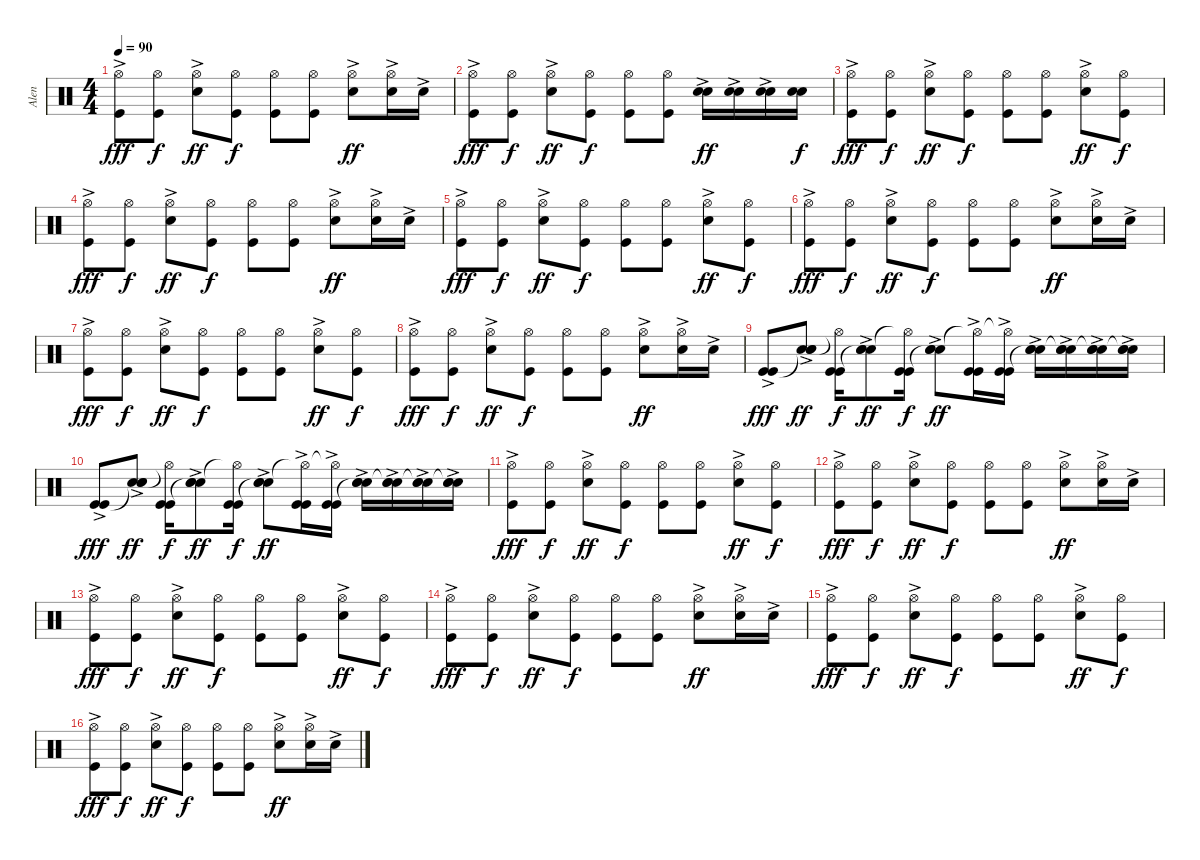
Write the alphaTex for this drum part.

\track ("Alen" "Alen") {instrument percussion}
\staff {score}
\articulation defaults
\ts (4 4)
\tempo 90
\clef neutral
\ks c
("Kick (hit)"{ac} "Hi-Hat (open)").8{dy fff} ("Kick (hit)" "Hi-Hat (open)").8{dy f} ("Snare (hit) 2"{ac} "Hi-Hat (open)").8{dy ff} ("Kick (hit)" "Hi-Hat (open)").8{dy f} ("Kick (hit)" "Hi-Hat (open)").8 ("Kick (hit)" "Hi-Hat (open)").8 ("Snare (hit) 2"{ac} "Hi-Hat (open)").8{dy ff} ("Snare (hit) 2"{ac} "Hi-Hat (open)").16 "Snare (hit) 2"{ac}.16 |
("Kick (hit)"{ac} "Hi-Hat (open)").8{dy fff} ("Kick (hit)" "Hi-Hat (open)").8{dy f} ("Snare (hit) 2"{ac} "Hi-Hat (open)").8{dy ff} ("Kick (hit)" "Hi-Hat (open)").8{dy f} ("Kick (hit)" "Hi-Hat (open)").8 ("Kick (hit)" "Hi-Hat (open)").8 ("Snare (hit) 2"{ac} "Snare (hit) 2").16{dy ff} ("Snare (hit) 2"{ac} "Snare (hit) 2").16 ("Snare (hit) 2"{ac} "Snare (hit) 2").16 ("Snare (hit) 2" "Snare (hit) 2").16{dy f} |
("Kick (hit)"{ac} "Hi-Hat (open)").8{dy fff} ("Kick (hit)" "Hi-Hat (open)").8{dy f} ("Snare (hit) 2"{ac} "Hi-Hat (open)").8{dy ff} ("Kick (hit)" "Hi-Hat (open)").8{dy f} ("Kick (hit)" "Hi-Hat (open)").8 ("Kick (hit)" "Hi-Hat (open)").8 ("Snare (hit) 2"{ac} "Hi-Hat (open)").8{dy ff} ("Kick (hit)" "Hi-Hat (open)").8{dy f} |
("Kick (hit)"{ac} "Hi-Hat (open)").8{dy fff} ("Kick (hit)" "Hi-Hat (open)").8{dy f} ("Snare (hit) 2"{ac} "Hi-Hat (open)").8{dy ff} ("Kick (hit)" "Hi-Hat (open)").8{dy f} ("Kick (hit)" "Hi-Hat (open)").8 ("Kick (hit)" "Hi-Hat (open)").8 ("Snare (hit) 2"{ac} "Hi-Hat (open)").8{dy ff} ("Snare (hit) 2"{ac} "Hi-Hat (open)").16 "Snare (hit) 2"{ac}.16 |
("Kick (hit)"{ac} "Hi-Hat (open)").8{dy fff} ("Kick (hit)" "Hi-Hat (open)").8{dy f} ("Snare (hit) 2"{ac} "Hi-Hat (open)").8{dy ff} ("Kick (hit)" "Hi-Hat (open)").8{dy f} ("Kick (hit)" "Hi-Hat (open)").8 ("Kick (hit)" "Hi-Hat (open)").8 ("Snare (hit) 2"{ac} "Hi-Hat (open)").8{dy ff} ("Kick (hit)" "Hi-Hat (open)").8{dy f} |
("Kick (hit)"{ac} "Hi-Hat (open)").8{dy fff} ("Kick (hit)" "Hi-Hat (open)").8{dy f} ("Snare (hit) 2"{ac} "Hi-Hat (open)").8{dy ff} ("Kick (hit)" "Hi-Hat (open)").8{dy f} ("Kick (hit)" "Hi-Hat (open)").8 ("Kick (hit)" "Hi-Hat (open)").8 ("Snare (hit) 2"{ac} "Hi-Hat (open)").8{dy ff} ("Snare (hit) 2"{ac} "Hi-Hat (open)").16 "Snare (hit) 2"{ac}.16 |
("Kick (hit)"{ac} "Hi-Hat (open)").8{dy fff} ("Kick (hit)" "Hi-Hat (open)").8{dy f} ("Snare (hit) 2"{ac} "Hi-Hat (open)").8{dy ff} ("Kick (hit)" "Hi-Hat (open)").8{dy f} ("Kick (hit)" "Hi-Hat (open)").8 ("Kick (hit)" "Hi-Hat (open)").8 ("Snare (hit) 2"{ac} "Hi-Hat (open)").8{dy ff} ("Kick (hit)" "Hi-Hat (open)").8{dy f} |
("Kick (hit)"{ac} "Hi-Hat (open)").8{dy fff} ("Kick (hit)" "Hi-Hat (open)").8{dy f} ("Snare (hit) 2"{ac} "Hi-Hat (open)").8{dy ff} ("Kick (hit)" "Hi-Hat (open)").8{dy f} ("Kick (hit)" "Hi-Hat (open)").8 ("Kick (hit)" "Hi-Hat (open)").8 ("Snare (hit) 2"{ac} "Hi-Hat (open)").8{dy ff} ("Snare (hit) 2"{ac} "Hi-Hat (open)").16 "Snare (hit) 2"{ac}.16 |
("Kick (hit)"{ac} "Kick (hit)").8{dy fff} ("Electric Snare (hit)"{ac} "Snare (hit)"{t} "Snare (hit) 2").8{dy ff} ("Kick (hit)" "Kick (hit)" "Hi-Hat (open)"{t}).16{dy f} ("Electric Snare (hit)"{ac} "Snare (hit)"{t} "Snare (hit) 2").8{dy ff} ("Kick (hit)" "Kick (hit)" "Hi-Hat (open)"{t}).16{dy f} ("Electric Snare (hit)"{ac} "Snare (hit)"{t} "Snare (hit) 2").8{dy ff} ("Kick (hit)"{ac} "Kick (hit)" "Hi-Hat (open)"{t}).16 ("Kick (hit)"{ac} "Kick (hit)" "Hi-Hat (open)"{t}).16 ("Electric Snare (hit)"{ac} "Snare (hit)"{t} "Snare (hit) 2").16 ("Electric Snare (hit)"{ac} "Snare (hit)"{t} "Snare (hit) 2").16 ("Electric Snare (hit)"{ac} "Snare (hit)"{t} "Snare (hit) 2").16 ("Electric Snare (hit)"{ac} "Snare (hit)"{t} "Snare (hit) 2").16 |
("Kick (hit)"{ac} "Kick (hit)").8{dy fff} ("Electric Snare (hit)"{ac} "Snare (hit)"{t} "Snare (hit) 2").8{dy ff} ("Kick (hit)" "Kick (hit)" "Hi-Hat (open)"{t}).16{dy f} ("Electric Snare (hit)"{ac} "Snare (hit)"{t} "Snare (hit) 2").8{dy ff} ("Kick (hit)" "Kick (hit)" "Hi-Hat (open)"{t}).16{dy f} ("Electric Snare (hit)"{ac} "Snare (hit)"{t} "Snare (hit) 2").8{dy ff} ("Kick (hit)"{ac} "Kick (hit)" "Hi-Hat (open)"{t}).16 ("Kick (hit)"{ac} "Kick (hit)" "Hi-Hat (open)"{t}).16 ("Electric Snare (hit)"{ac} "Snare (hit)"{t} "Snare (hit) 2").16 ("Electric Snare (hit)"{ac} "Snare (hit)"{t} "Snare (hit) 2").16 ("Electric Snare (hit)"{ac} "Snare (hit)"{t} "Snare (hit) 2").16 ("Electric Snare (hit)"{ac} "Snare (hit)"{t} "Snare (hit) 2").16 |
("Kick (hit)"{ac} "Hi-Hat (open)").8{dy fff} ("Kick (hit)" "Hi-Hat (open)").8{dy f} ("Snare (hit) 2"{ac} "Hi-Hat (open)").8{dy ff} ("Kick (hit)" "Hi-Hat (open)").8{dy f} ("Kick (hit)" "Hi-Hat (open)").8 ("Kick (hit)" "Hi-Hat (open)").8 ("Snare (hit) 2"{ac} "Hi-Hat (open)").8{dy ff} ("Kick (hit)" "Hi-Hat (open)").8{dy f} |
("Kick (hit)"{ac} "Hi-Hat (open)").8{dy fff} ("Kick (hit)" "Hi-Hat (open)").8{dy f} ("Snare (hit) 2"{ac} "Hi-Hat (open)").8{dy ff} ("Kick (hit)" "Hi-Hat (open)").8{dy f} ("Kick (hit)" "Hi-Hat (open)").8 ("Kick (hit)" "Hi-Hat (open)").8 ("Snare (hit) 2"{ac} "Hi-Hat (open)").8{dy ff} ("Snare (hit) 2"{ac} "Hi-Hat (open)").16 "Snare (hit) 2"{ac}.16 |
("Kick (hit)"{ac} "Hi-Hat (open)").8{dy fff} ("Kick (hit)" "Hi-Hat (open)").8{dy f} ("Snare (hit) 2"{ac} "Hi-Hat (open)").8{dy ff} ("Kick (hit)" "Hi-Hat (open)").8{dy f} ("Kick (hit)" "Hi-Hat (open)").8 ("Kick (hit)" "Hi-Hat (open)").8 ("Snare (hit) 2"{ac} "Hi-Hat (open)").8{dy ff} ("Kick (hit)" "Hi-Hat (open)").8{dy f} |
("Kick (hit)"{ac} "Hi-Hat (open)").8{dy fff} ("Kick (hit)" "Hi-Hat (open)").8{dy f} ("Snare (hit) 2"{ac} "Hi-Hat (open)").8{dy ff} ("Kick (hit)" "Hi-Hat (open)").8{dy f} ("Kick (hit)" "Hi-Hat (open)").8 ("Kick (hit)" "Hi-Hat (open)").8 ("Snare (hit) 2"{ac} "Hi-Hat (open)").8{dy ff} ("Snare (hit) 2"{ac} "Hi-Hat (open)").16 "Snare (hit) 2"{ac}.16 |
("Kick (hit)"{ac} "Hi-Hat (open)").8{dy fff} ("Kick (hit)" "Hi-Hat (open)").8{dy f} ("Snare (hit) 2"{ac} "Hi-Hat (open)").8{dy ff} ("Kick (hit)" "Hi-Hat (open)").8{dy f} ("Kick (hit)" "Hi-Hat (open)").8 ("Kick (hit)" "Hi-Hat (open)").8 ("Snare (hit) 2"{ac} "Hi-Hat (open)").8{dy ff} ("Kick (hit)" "Hi-Hat (open)").8{dy f} |
("Kick (hit)"{ac} "Hi-Hat (open)").8{dy fff} ("Kick (hit)" "Hi-Hat (open)").8{dy f} ("Snare (hit) 2"{ac} "Hi-Hat (open)").8{dy ff} ("Kick (hit)" "Hi-Hat (open)").8{dy f} ("Kick (hit)" "Hi-Hat (open)").8 ("Kick (hit)" "Hi-Hat (open)").8 ("Snare (hit) 2"{ac} "Hi-Hat (open)").8{dy ff} ("Snare (hit) 2"{ac} "Hi-Hat (open)").16 "Snare (hit) 2"{ac}.16
